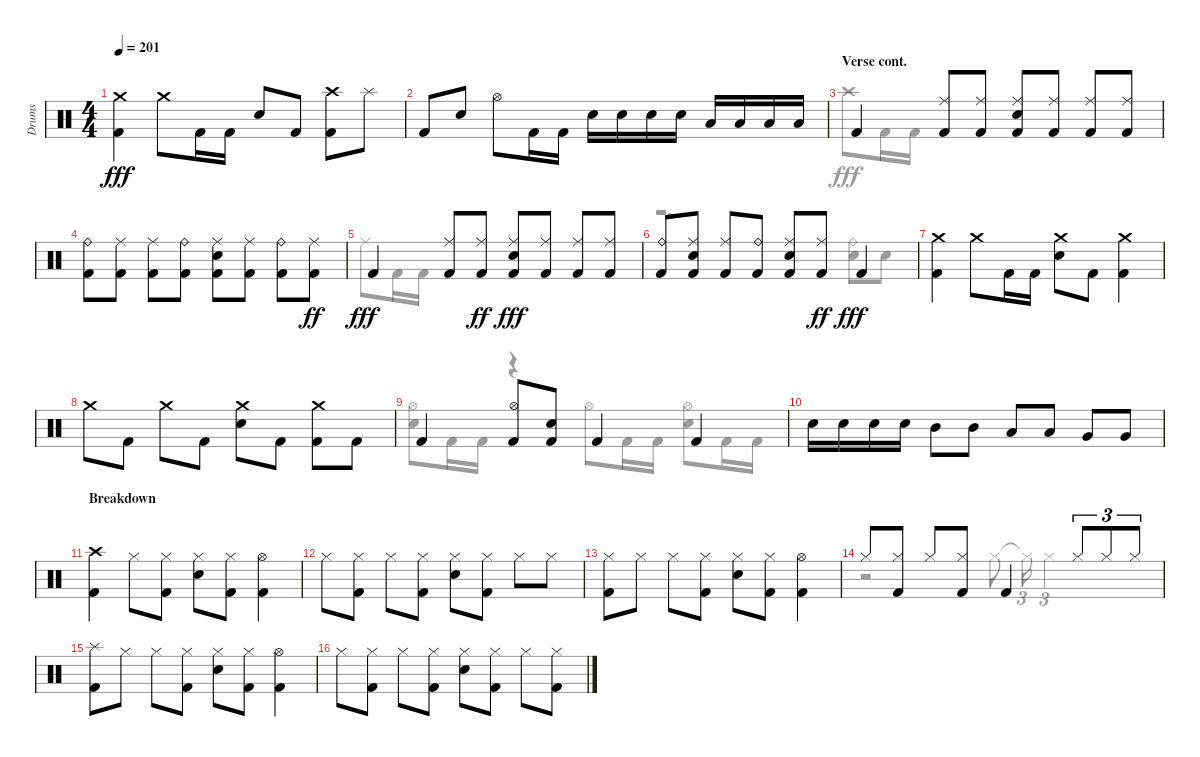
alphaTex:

\track ("Drums" "Drums") {instrument percussion}
\staff {score}
\articulation defaults
\voice
\ts (4 4)
\tempo 201
\clef neutral
\ks aminor
("Crash medium (hit)" "Kick (hit) 2").4{dy fff} "Crash medium (hit)".8 "Kick (hit) 2".16 "Kick (hit) 2".16 "Snare (hit) 2".8 "Kick (hit) 2".8 ("Kick (hit) 2" "Crash high (hit)").8 "Splash (hit)".8 |
"Kick (hit) 2".8 "Snare (hit) 2".8 "Hi-Hat (open)".8 "Kick (hit) 2".16 "Kick (hit) 2".16 "Snare (hit) 2".16 "Snare (hit) 2".16 "Snare (hit) 2".16 "Snare (hit) 2".16 "Low Floor Tom (hit)".16 "Low Floor Tom (hit)".16 "Low Floor Tom (hit)".16 "Low Floor Tom (hit)".16 |
\section ("" "Verse cont.")
"Kick (hit) 2".4 ("Ride (middle)" "Kick (hit) 2").8 ("Kick (hit) 2" "Ride (middle)").8 ("Ride (middle)" "Snare (hit) 2" "Kick (hit) 2").8 ("Ride (middle)" "Kick (hit) 2").8 ("Kick (hit) 2" "Ride (middle)").8 ("Kick (hit) 2" "Ride (middle)").8 |
("Kick (hit) 2" "Ride (bell)").8 ("Kick (hit) 2" "Ride (middle)").8 ("Kick (hit) 2" "Ride (middle)").8 ("Kick (hit) 2" "Ride (bell)").8 ("Kick (hit) 2" "Ride (middle)" "Snare (hit) 2").8 ("Ride (middle)" "Kick (hit) 2").8 ("Kick (hit) 2" "Ride (bell)").8 ("Kick (hit) 2" "Ride (middle)").8{dy ff} |
"Kick (hit) 2".4{dy fff} ("Ride (middle)" "Kick (hit) 2").8 ("Ride (middle)" "Kick (hit) 2").8{dy ff} ("Snare (hit) 2" "Kick (hit) 2" "Ride (middle)").8{dy fff} ("Kick (hit) 2" "Ride (middle)").8 ("Kick (hit) 2" "Ride (middle)").8 ("Kick (hit) 2" "Ride (middle)").8 |
("Kick (hit) 2" "Ride (bell)").8 ("Kick (hit) 2" "Ride (middle)" "Snare (hit) 2").8 ("Kick (hit) 2" "Ride (middle)").8 ("Kick (hit) 2" "Ride (bell)").8 ("Kick (hit) 2" "Snare (hit) 2" "Ride (middle)").8 ("Kick (hit) 2" "Ride (middle)").8{dy ff} "Kick (hit) 2".4{dy fff} |
("Crash medium (hit)" "Kick (hit) 2").4 "Crash medium (hit)".8 "Kick (hit) 2".16 "Kick (hit) 2".16 ("Crash medium (hit)" "Snare (hit) 2").8 "Kick (hit) 2".8 ("Kick (hit) 2" "Crash medium (hit)").4 |
"Crash medium (hit)".8 "Kick (hit) 2".8 "Crash medium (hit)".8 "Kick (hit) 2".8 ("Crash medium (hit)" "Snare (hit) 2").8 "Kick (hit) 2".8 ("Kick (hit) 2" "Crash medium (hit)").8 "Kick (hit) 2".8 |
"Kick (hit) 2".4 ("Kick (hit) 2" "Hi-Hat (open)").8 ("Kick (hit) 2" "Snare (hit) 2").8 "Kick (hit) 2".4 "Kick (hit) 2".4 |
"Snare (hit) 2".16 "Snare (hit) 2".16 "Snare (hit) 2".16 "Snare (hit) 2".16 "Mid Tom (hit)".8 "Mid Tom (hit)".8 "Low Tom (hit)".8 "Low Tom (hit)".8 "Very Low Tom (hit)".8 "Very Low Tom (hit)".8 |
\section ("" "Breakdown")
("Crash high (hit)" "Kick (hit) 2").4 "Hi-Hat (closed)".8 ("Hi-Hat (closed)" "Kick (hit) 2").8 ("Hi-Hat (closed)" "Snare (hit) 2").8 ("Hi-Hat (closed)" "Kick (hit) 2").8 ("Hi-Hat (open)" "Kick (hit) 2").4 |
"Hi-Hat (closed)".8 ("Kick (hit) 2" "Hi-Hat (closed)").8 "Hi-Hat (closed)".8 ("Kick (hit) 2" "Hi-Hat (closed)").8 ("Hi-Hat (closed)" "Snare (hit) 2").8 ("Kick (hit) 2" "Hi-Hat (closed)").8 "Hi-Hat (closed)".8 "Hi-Hat (closed)".8 |
("Kick (hit) 2" "Hi-Hat (closed)").8 "Hi-Hat (closed)".8 "Hi-Hat (closed)".8 ("Hi-Hat (closed)" "Kick (hit) 2").8 ("Hi-Hat (closed)" "Snare (hit) 2").8 ("Hi-Hat (closed)" "Kick (hit) 2").8 ("Hi-Hat (open)" "Kick (hit) 2").4 |
"Hi-Hat (closed)".8 ("Kick (hit) 2" "Hi-Hat (closed)").8 "Hi-Hat (closed)".8 ("Kick (hit) 2" "Hi-Hat (closed)").8 "Kick (hit) 2".4 "Hi-Hat (closed)".8{tu (3 2)} "Hi-Hat (closed)".8{tu (3 2)} "Hi-Hat (closed)".8{tu (3 2)} |
("Splash (hit)" "Kick (hit) 2").8 "Hi-Hat (closed)".8 "Hi-Hat (closed)".8 ("Hi-Hat (closed)" "Kick (hit) 2").8 ("Hi-Hat (closed)" "Snare (hit) 2").8 ("Hi-Hat (closed)" "Kick (hit) 2").8 ("Kick (hit) 2" "Hi-Hat (open)").4 |
"Hi-Hat (closed)".8 ("Hi-Hat (closed)" "Kick (hit) 2").8 "Hi-Hat (closed)".8 ("Hi-Hat (closed)" "Kick (hit) 2").8 ("Snare (hit) 2" "Hi-Hat (closed)").8 ("Hi-Hat (closed)" "Kick (hit) 2").8 "Hi-Hat (closed)".8 ("Hi-Hat (closed)" "Kick (hit) 2").8
\voice
\clef neutral
\ottava regular
\simile none
\ks aminor
|
|
"Crash high (hit)".8 "Kick (hit) 2".16 "Kick (hit) 2".16 |
|
"Ride (middle)".8 "Kick (hit) 2".16 "Kick (hit) 2".16 |
r.2{d} ("Ride (bell)" "Snare (hit) 2").8 "Snare (hit) 2".8 |
|
|
("Hi-Hat (open)" "Snare (hit) 2").8 "Kick (hit) 2".16 "Kick (hit) 2".16 r.4 "Hi-Hat (open)".8 "Kick (hit) 2".16 "Kick (hit) 2".16 ("Hi-Hat (open)" "Snare (hit) 2").8 "Kick (hit) 2".16 "Kick (hit) 2".16 |
|
|
|
|
r.2 "Hi-Hat (closed)".8 "Hi-Hat (closed)"{t}.16{tu (3 2)} "Hi-Hat (closed)".4{tu (3 2)} |
|
